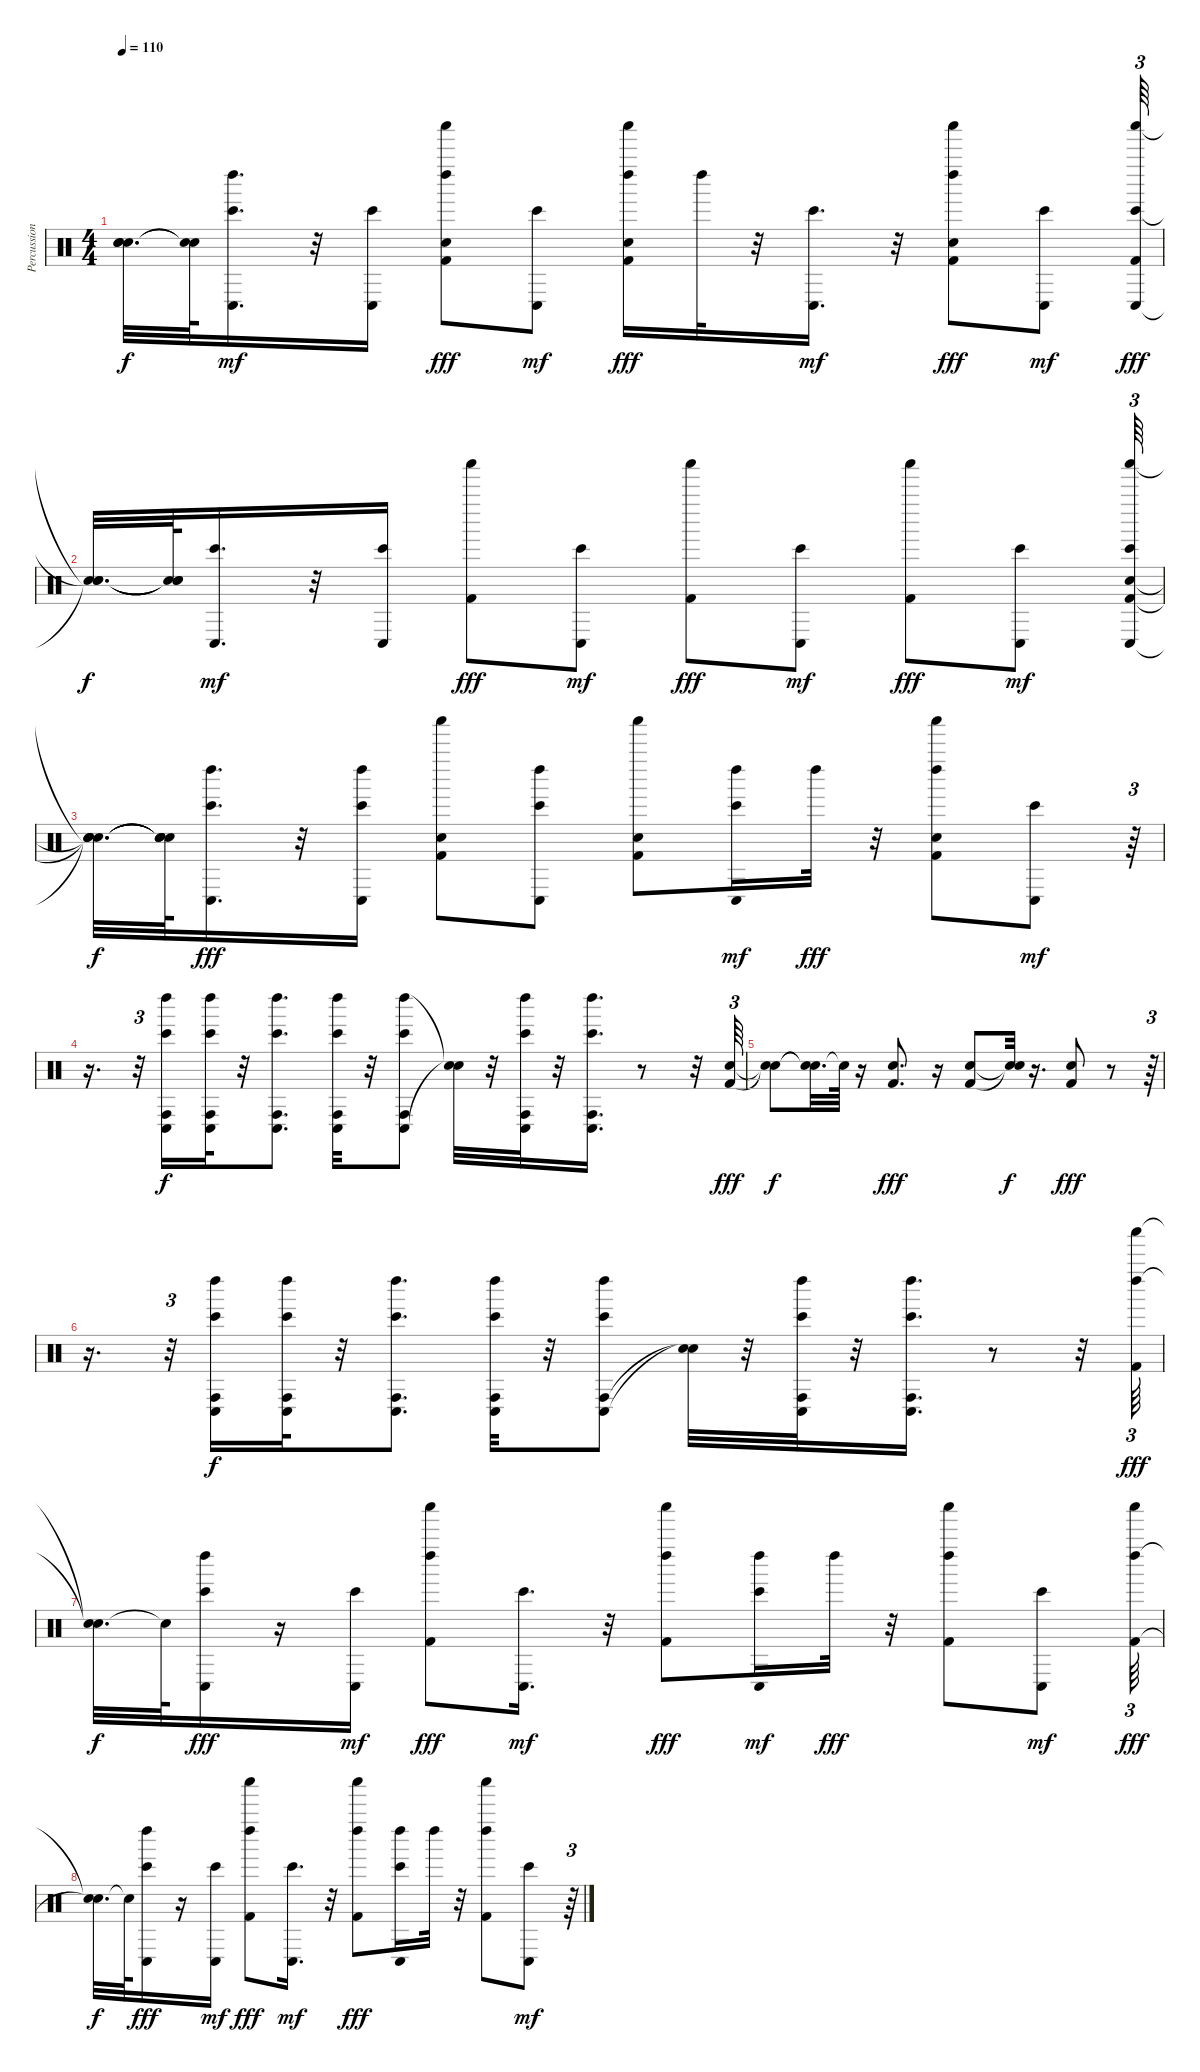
\track ("Percussion" "Percussion") {instrument percussion}
\staff {score}
\articulation defaults
\ts (4 4)
\tempo 110
\clef neutral
\ks c
("Snare (hit)"{t} "Snare (hit)"{t} "Snare (hit)"{t}).32{d dy f} ("Snare (hit)"{t} "Snare (hit)"{t}).64 ("Left Maraca (hit)" "Conga low (hit)" "Bongo High (hit)").16{d dy mf} r.32 ("Bongo High (hit)" "Conga low (hit)").16 ("Shaker (hit)" "Kick (hit) 2" "Hand Clap (hit)" "Left Maraca (hit)").8{dy fff} ("Bongo High (hit)" "Conga low (hit)").8{dy mf} ("Shaker (hit)" "Kick (hit) 2" "Left Maraca (hit)" "Hand Clap (hit)").16{dy fff} "Left Maraca (hit)".32 r.32 ("Conga low (hit)" "Bongo High (hit)").16{d dy mf} r.32 ("Shaker (hit)" "Kick (hit) 2" "Hand Clap (hit)" "Left Maraca (hit)").8{dy fff} ("Bongo High (hit)" "Conga low (hit)").8{dy mf} ("Conga low (hit)" "Bongo High (hit)" "Shaker (hit)" "Kick (hit) 2").64{tu (3 2) dy fff} |
("Snare (hit)"{t} "Snare (hit)"{t} "Snare (hit)"{t}).32{d dy f} ("Snare (hit)"{t} "Snare (hit)"{t} "Snare (hit)"{t}).64 ("Conga low (hit)" "Bongo High (hit)").16{d dy mf} r.32 ("Bongo High (hit)" "Conga low (hit)").16 ("Kick (hit) 2" "Shaker (hit)").8{dy fff} ("Bongo High (hit)" "Conga low (hit)").8{dy mf} ("Shaker (hit)" "Kick (hit) 2").8{dy fff} ("Bongo High (hit)" "Conga low (hit)").8{dy mf} ("Shaker (hit)" "Kick (hit) 2").8{dy fff} ("Bongo High (hit)" "Conga low (hit)").8{dy mf} ("Shaker (hit)" "Conga low (hit)" "Kick (hit) 2" "Hand Clap (hit)" "Bongo High (hit)").64{tu (3 2)} |
("Snare (hit)"{t} "Snare (hit)"{t} "Snare (hit)"{t} "Snare (hit)"{t}).32{d dy f} ("Snare (hit)"{t} "Snare (hit)"{t} "Snare (hit)"{t} "Snare (hit)"{t}).64 ("Conga low (hit)" "Bongo High (hit)" "Left Maraca (hit)").16{d dy fff} r.32 ("Conga low (hit)" "Bongo High (hit)" "Left Maraca (hit)").16 ("Kick (hit) 2" "Hand Clap (hit)" "Shaker (hit)").8 ("Bongo High (hit)" "Conga low (hit)" "Left Maraca (hit)").8 ("Hand Clap (hit)" "Shaker (hit)" "Kick (hit) 2").8 ("Bongo High (hit)" "Left Maraca (hit)" "Conga low (hit)").16{dy mf} "Left Maraca (hit)".32{dy fff} r.32 ("Hand Clap (hit)" "Shaker (hit)" "Kick (hit) 2" "Left Maraca (hit)").8 ("Bongo High (hit)" "Conga low (hit)").8{dy mf} r.64{tu (3 2)} |
r.16{d} r.32{tu (3 2)} ("Conga high (hit)" "Conga low (hit)" "Bongo High (hit)" "Left Maraca (hit)").16{dy f} ("Conga high (hit)" "Left Maraca (hit)" "Conga low (hit)" "Bongo High (hit)").32 r.32 ("Bongo High (hit)" "Conga low (hit)" "Conga high (hit)" "Left Maraca (hit)").8{d} ("Conga low (hit)" "Conga high (hit)" "Bongo High (hit)" "Left Maraca (hit)").32 r.32 ("Left Maraca (hit)" "Conga low (hit)" "Bongo High (hit)" "Conga high (hit)").8 ("Snare (hit)"{t} "Snare (hit)"{t}).32 r.32 ("Bongo High (hit)" "Left Maraca (hit)" "Conga high (hit)" "Conga low (hit)").32 r.32 ("Conga high (hit)" "Left Maraca (hit)" "Conga low (hit)" "Bongo High (hit)").16{d} r.8 r.32 ("Kick (hit) 2" "Hand Clap (hit)").64{tu (3 2) dy fff} |
("Snare (hit)"{t} "Snare (hit)"{t}).8{dy f} ("Snare (hit)"{t} "Snare (hit)"{t}).32{d} "Snare (hit)"{t}.64 r.16 ("Kick (hit) 2" "Hand Clap (hit)").8{d dy fff} r.16 ("Kick (hit) 2" "Hand Clap (hit)").8 ("Snare (hit)"{t} "Snare (hit)"{t}).32{dy f} r.16{d} ("Kick (hit) 2" "Hand Clap (hit)").8{dy fff} r.8 r.64{tu (3 2)} |
r.16{d} r.32{tu (3 2)} ("Conga low (hit)" "Left Maraca (hit)" "Conga high (hit)" "Bongo High (hit)").16{dy f} ("Conga high (hit)" "Bongo High (hit)" "Conga low (hit)" "Left Maraca (hit)").32 r.32 ("Left Maraca (hit)" "Conga low (hit)" "Bongo High (hit)" "Conga high (hit)").8{d} ("Left Maraca (hit)" "Conga high (hit)" "Bongo High (hit)" "Conga low (hit)").32 r.32 ("Conga high (hit)" "Conga low (hit)" "Bongo High (hit)" "Left Maraca (hit)").8 ("Snare (hit)"{t} "Snare (hit)"{t}).32 r.32 ("Conga low (hit)" "Conga high (hit)" "Left Maraca (hit)" "Bongo High (hit)").32 r.32 ("Conga high (hit)" "Left Maraca (hit)" "Conga low (hit)" "Bongo High (hit)").16{d} r.8 r.32 ("Shaker (hit)" "Left Maraca (hit)" "Kick (hit) 2").64{tu (3 2) dy fff} |
("Snare (hit)"{t} "Snare (hit)"{t}).32{d dy f} "Snare (hit)"{t}.64 ("Conga low (hit)" "Bongo High (hit)" "Left Maraca (hit)").16{dy fff} r.16 ("Conga low (hit)" "Bongo High (hit)").16{dy mf} ("Kick (hit) 2" "Shaker (hit)" "Left Maraca (hit)").8{dy fff} ("Conga low (hit)" "Bongo High (hit)").16{d dy mf} r.32 ("Shaker (hit)" "Kick (hit) 2" "Left Maraca (hit)").8{dy fff} ("Conga low (hit)" "Left Maraca (hit)" "Bongo High (hit)").16{dy mf} "Left Maraca (hit)".32{dy fff} r.32 ("Shaker (hit)" "Left Maraca (hit)" "Kick (hit) 2").8 ("Conga low (hit)" "Bongo High (hit)").8{dy mf} ("Left Maraca (hit)" "Kick (hit) 2" "Shaker (hit)").64{tu (3 2) dy fff} |
("Snare (hit)"{t} "Snare (hit)"{t}).32{d dy f} "Snare (hit)"{t}.64 ("Conga low (hit)" "Bongo High (hit)" "Left Maraca (hit)").16{dy fff} r.16 ("Bongo High (hit)" "Conga low (hit)").16{dy mf} ("Shaker (hit)" "Kick (hit) 2" "Left Maraca (hit)").8{dy fff} ("Conga low (hit)" "Bongo High (hit)").16{d dy mf} r.32 ("Shaker (hit)" "Left Maraca (hit)" "Kick (hit) 2").8{dy fff} ("Bongo High (hit)" "Conga low (hit)" "Left Maraca (hit)").16 "Left Maraca (hit)".32 r.32 ("Shaker (hit)" "Left Maraca (hit)" "Kick (hit) 2").8 ("Conga low (hit)" "Bongo High (hit)").8{dy mf} r.64{tu (3 2)}
